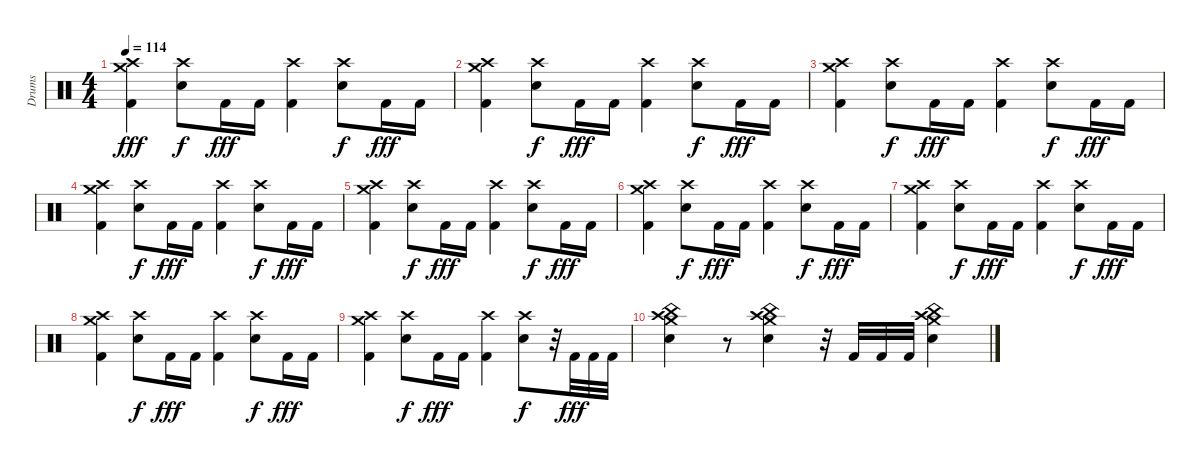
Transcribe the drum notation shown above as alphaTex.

\track ("Drums" "Drums") {instrument percussion}
\staff {score}
\articulation defaults
\ts (4 4)
\tempo 114
\clef neutral
\ks c
("Crash high (hit)" "Crash medium (hit)" "Kick (hit) 2").4{dy fff} ("Crash high (hit)" "Snare (hit) 2").8{dy f} "Kick (hit) 2".16{dy fff} "Kick (hit) 2".16 ("Crash high (hit)" "Kick (hit) 2").4 ("Crash high (hit)" "Snare (hit) 2").8{dy f} "Kick (hit) 2".16{dy fff} "Kick (hit) 2".16 |
("Crash high (hit)" "Crash medium (hit)" "Kick (hit) 2").4 ("Crash high (hit)" "Snare (hit) 2").8{dy f} "Kick (hit) 2".16{dy fff} "Kick (hit) 2".16 ("Crash high (hit)" "Kick (hit) 2").4 ("Crash high (hit)" "Snare (hit) 2").8{dy f} "Kick (hit) 2".16{dy fff} "Kick (hit) 2".16 |
("Crash high (hit)" "Crash medium (hit)" "Kick (hit) 2").4 ("Crash high (hit)" "Snare (hit) 2").8{dy f} "Kick (hit) 2".16{dy fff} "Kick (hit) 2".16 ("Crash high (hit)" "Kick (hit) 2").4 ("Crash high (hit)" "Snare (hit) 2").8{dy f} "Kick (hit) 2".16{dy fff} "Kick (hit) 2".16 |
("Crash high (hit)" "Crash medium (hit)" "Kick (hit) 2").4 ("Crash high (hit)" "Snare (hit) 2").8{dy f} "Kick (hit) 2".16{dy fff} "Kick (hit) 2".16 ("Crash high (hit)" "Kick (hit) 2").4 ("Crash high (hit)" "Snare (hit) 2").8{dy f} "Kick (hit) 2".16{dy fff} "Kick (hit) 2".16 |
("Crash high (hit)" "Crash medium (hit)" "Kick (hit) 2").4 ("Crash high (hit)" "Snare (hit) 2").8{dy f} "Kick (hit) 2".16{dy fff} "Kick (hit) 2".16 ("Crash high (hit)" "Kick (hit) 2").4 ("Crash high (hit)" "Snare (hit) 2").8{dy f} "Kick (hit) 2".16{dy fff} "Kick (hit) 2".16 |
("Crash high (hit)" "Crash medium (hit)" "Kick (hit) 2").4 ("Crash high (hit)" "Snare (hit) 2").8{dy f} "Kick (hit) 2".16{dy fff} "Kick (hit) 2".16 ("Crash high (hit)" "Kick (hit) 2").4 ("Crash high (hit)" "Snare (hit) 2").8{dy f} "Kick (hit) 2".16{dy fff} "Kick (hit) 2".16 |
("Crash high (hit)" "Crash medium (hit)" "Kick (hit) 2").4 ("Crash high (hit)" "Snare (hit) 2").8{dy f} "Kick (hit) 2".16{dy fff} "Kick (hit) 2".16 ("Crash high (hit)" "Kick (hit) 2").4 ("Crash high (hit)" "Snare (hit) 2").8{dy f} "Kick (hit) 2".16{dy fff} "Kick (hit) 2".16 |
("Crash high (hit)" "Crash medium (hit)" "Kick (hit) 2").4 ("Crash high (hit)" "Snare (hit) 2").8{dy f} "Kick (hit) 2".16{dy fff} "Kick (hit) 2".16 ("Crash high (hit)" "Kick (hit) 2").4 ("Crash high (hit)" "Snare (hit) 2").8{dy f} "Kick (hit) 2".16{dy fff} "Kick (hit) 2".16 |
("Crash high (hit)" "Crash medium (hit)" "Kick (hit) 2").4 ("Crash high (hit)" "Snare (hit) 2").8{dy f} "Kick (hit) 2".16{dy fff} "Kick (hit) 2".16 ("Crash high (hit)" "Kick (hit) 2").4 ("Crash high (hit)" "Snare (hit) 2").8{dy f} r.32 "Kick (hit) 2".32{dy fff} "Kick (hit) 2".32 "Kick (hit) 2".32 |
("Crash medium (hit)" "Crash high (hit)" "China (hit)" "Snare (hit) 2").4 r.8 ("Crash medium (hit)" "Crash high (hit)" "China (hit)" "Snare (hit) 2").4 r.32 "Kick (hit) 2".32 "Kick (hit) 2".32 "Kick (hit) 2".32 ("Crash medium (hit)" "Crash high (hit)" "China (hit)" "Snare (hit) 2").4
